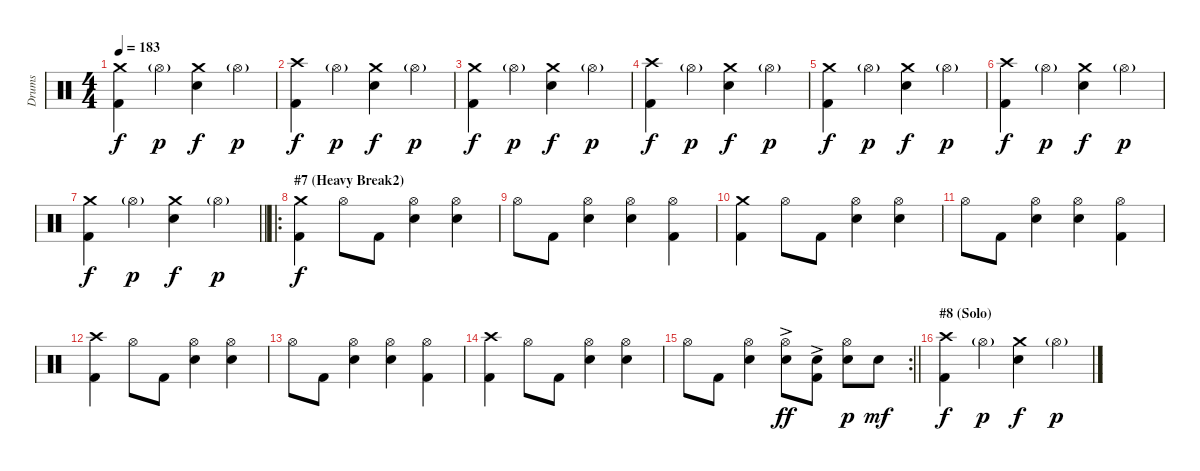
\track ("Drums" "Drums") {instrument percussion}
\staff {score}
\articulation defaults
\ts (4 4)
\tempo 183
\clef neutral
\ks c
("Crash medium (hit)" "Kick (hit) 2").4{dy f} "Hi-Hat (open)"{g}.4{dy p} ("Crash medium (hit)" "Electric Snare (hit)").4{dy f} "Hi-Hat (open)"{g}.4{dy p} |
("Crash high (hit)" "Kick (hit) 2").4{dy f} "Hi-Hat (open)"{g}.4{dy p} ("Crash medium (hit)" "Electric Snare (hit)").4{dy f} "Hi-Hat (open)"{g}.4{dy p} |
("Crash medium (hit)" "Kick (hit) 2").4{dy f} "Hi-Hat (open)"{g}.4{dy p} ("Crash medium (hit)" "Electric Snare (hit)").4{dy f} "Hi-Hat (open)"{g}.4{dy p} |
("Crash high (hit)" "Kick (hit) 2").4{dy f} "Hi-Hat (open)"{g}.4{dy p} ("Crash medium (hit)" "Electric Snare (hit)").4{dy f} "Hi-Hat (open)"{g}.4{dy p} |
("Crash medium (hit)" "Kick (hit) 2").4{dy f} "Hi-Hat (open)"{g}.4{dy p} ("Crash medium (hit)" "Electric Snare (hit)").4{dy f} "Hi-Hat (open)"{g}.4{dy p} |
("Crash high (hit)" "Kick (hit) 2").4{dy f} "Hi-Hat (open)"{g}.4{dy p} ("Crash medium (hit)" "Electric Snare (hit)").4{dy f} "Hi-Hat (open)"{g}.4{dy p} |
\barLineRight lightlight
("Crash medium (hit)" "Kick (hit) 2").4{dy f} "Hi-Hat (open)"{g}.4{dy p} ("Crash medium (hit)" "Electric Snare (hit)").4{dy f} "Hi-Hat (open)"{g}.4{dy p} |
\ro
\section ("" "#7 (Heavy Break2)")
("Crash medium (hit)" "Kick (hit) 2").4{dy f} "Hi-Hat (open)".8 "Kick (hit) 2".8 ("Hi-Hat (open)" "Electric Snare (hit)").4 ("Hi-Hat (open)" "Electric Snare (hit)").4 |
"Hi-Hat (open)".8 "Kick (hit) 2".8 ("Hi-Hat (open)" "Electric Snare (hit)").4 ("Hi-Hat (open)" "Electric Snare (hit)").4 ("Hi-Hat (open)" "Kick (hit) 2").4 |
("Crash medium (hit)" "Kick (hit) 2").4 "Hi-Hat (open)".8 "Kick (hit) 2".8 ("Hi-Hat (open)" "Electric Snare (hit)").4 ("Hi-Hat (open)" "Electric Snare (hit)").4 |
"Hi-Hat (open)".8 "Kick (hit) 2".8 ("Hi-Hat (open)" "Electric Snare (hit)").4 ("Hi-Hat (open)" "Electric Snare (hit)").4 ("Hi-Hat (open)" "Kick (hit) 2").4 |
("Crash high (hit)" "Kick (hit) 2").4 "Hi-Hat (open)".8 "Kick (hit) 2".8 ("Hi-Hat (open)" "Electric Snare (hit)").4 ("Hi-Hat (open)" "Electric Snare (hit)").4 |
"Hi-Hat (open)".8 "Kick (hit) 2".8 ("Hi-Hat (open)" "Electric Snare (hit)").4 ("Hi-Hat (open)" "Electric Snare (hit)").4 ("Hi-Hat (open)" "Kick (hit) 2").4 |
("Crash high (hit)" "Kick (hit) 2").4 "Hi-Hat (open)".8 "Kick (hit) 2".8 ("Hi-Hat (open)" "Electric Snare (hit)").4 ("Hi-Hat (open)" "Electric Snare (hit)").4 |
\rc 2
\barLineRight lightlight "Hi-Hat (open)".8 "Kick (hit) 2".8
("Hi-Hat (open)" "Electric Snare (hit)").4 ("Hi-Hat (open)" "Electric Snare (hit)"{ac}).8{dy ff} ("Electric Snare (hit)"{ac} "Kick (hit) 2").8 ("Hi-Hat (open)" "Electric Snare (hit)").8{dy p} "Electric Snare (hit)".8{dy mf} |
\section ("" "#8 (Solo)")
("Crash high (hit)" "Kick (hit) 2").4{dy f} "Hi-Hat (open)"{g}.4{dy p} ("Crash medium (hit)" "Electric Snare (hit)").4{dy f} "Hi-Hat (open)"{g}.4{dy p}
